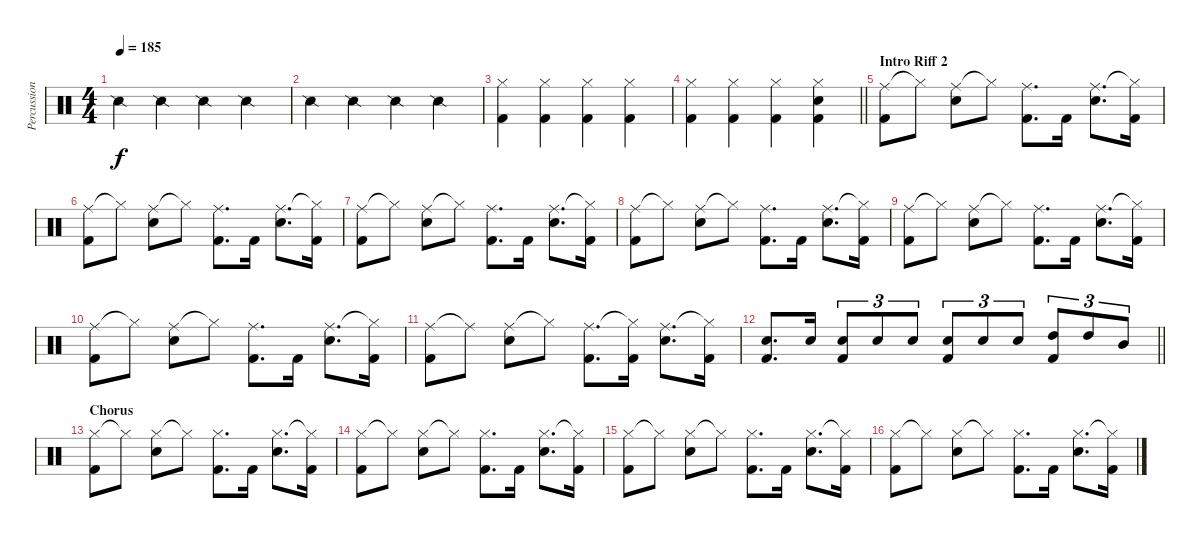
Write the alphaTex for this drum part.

\track ("Percussion" "Percussion") {instrument percussion}
\staff {score}
\articulation defaults
\ts (4 4)
\tempo 185
\clef neutral
\ks c "Snare (side stick) 2".4{dy f} "Snare (side stick) 2".4 "Snare (side stick) 2".4 "Snare (side stick) 2".4
|
"Snare (side stick) 2".4 "Snare (side stick) 2".4 "Snare (side stick) 2".4 "Snare (side stick) 2".4 |
("Hi-Hat (closed)" "Kick (hit) 2").4 ("Hi-Hat (closed)" "Kick (hit) 2").4 ("Hi-Hat (closed)" "Kick (hit) 2").4 ("Hi-Hat (closed)" "Kick (hit) 2").4 |
\barLineRight lightlight
("Hi-Hat (closed)" "Kick (hit) 2").4 ("Hi-Hat (closed)" "Kick (hit) 2").4 ("Hi-Hat (closed)" "Kick (hit) 2").4 ("Hi-Hat (closed)" "Snare (hit) 2" "Kick (hit) 2").4 |
\section ("" "Intro Riff 2")
("Ride (middle)" "Kick (hit) 2").8 "Hi-Hat (closed)"{t}.8 ("Ride (middle)" "Snare (hit) 2").8 "Hi-Hat (closed)"{t}.8 ("Ride (middle)" "Kick (hit) 2").8{d} "Kick (hit) 2".16 ("Ride (middle)" "Snare (hit) 2").8{d} ("Hi-Hat (closed)"{t} "Kick (hit) 2").16 |
("Ride (middle)" "Kick (hit) 2").8 "Hi-Hat (closed)"{t}.8 ("Ride (middle)" "Snare (hit) 2").8 "Hi-Hat (closed)"{t}.8 ("Ride (middle)" "Kick (hit) 2").8{d} "Kick (hit) 2".16 ("Ride (middle)" "Snare (hit) 2").8{d} ("Hi-Hat (closed)"{t} "Kick (hit) 2").16 |
("Ride (middle)" "Kick (hit) 2").8 "Hi-Hat (closed)"{t}.8 ("Ride (middle)" "Snare (hit) 2").8 "Hi-Hat (closed)"{t}.8 ("Ride (middle)" "Kick (hit) 2").8{d} "Kick (hit) 2".16 ("Ride (middle)" "Snare (hit) 2").8{d} ("Hi-Hat (closed)"{t} "Kick (hit) 2").16 |
("Ride (middle)" "Kick (hit) 2").8 "Hi-Hat (closed)"{t}.8 ("Ride (middle)" "Snare (hit) 2").8 "Hi-Hat (closed)"{t}.8 ("Ride (middle)" "Kick (hit) 2").8{d} "Kick (hit) 2".16 ("Ride (middle)" "Snare (hit) 2").8{d} ("Hi-Hat (closed)"{t} "Kick (hit) 2").16 |
("Ride (middle)" "Kick (hit) 2").8 "Hi-Hat (closed)"{t}.8 ("Ride (middle)" "Snare (hit) 2").8 "Hi-Hat (closed)"{t}.8 ("Ride (middle)" "Kick (hit) 2").8{d} "Kick (hit) 2".16 ("Ride (middle)" "Snare (hit) 2").8{d} ("Hi-Hat (closed)"{t} "Kick (hit) 2").16 |
("Ride (middle)" "Kick (hit) 2").8 "Hi-Hat (closed)"{t}.8 ("Ride (middle)" "Snare (hit) 2").8 "Hi-Hat (closed)"{t}.8 ("Ride (middle)" "Kick (hit) 2").8{d} "Kick (hit) 2".16 ("Ride (middle)" "Snare (hit) 2").8{d} ("Hi-Hat (closed)"{t} "Kick (hit) 2").16 |
("Ride (middle)" "Kick (hit) 2").8 "Ride (middle)"{t}.8 ("Ride (middle)" "Snare (hit) 2").8 "Hi-Hat (closed)"{t}.8 ("Ride (middle)" "Kick (hit) 2").8{d} ("Hi-Hat (closed)"{t} "Kick (hit) 2").16 ("Ride (middle)" "Snare (hit) 2").8{d} ("Hi-Hat (closed)"{t} "Kick (hit) 2").16 |
\barLineRight lightlight
("Snare (hit) 2" "Kick (hit) 2").8{d} "Snare (hit) 2".16 ("Snare (hit) 2" "Kick (hit) 2").8{tu (3 2)} "Snare (hit) 2".8{tu (3 2)} "Snare (hit) 2".8{tu (3 2)} ("Snare (hit) 2" "Kick (hit) 2").8{tu (3 2)} "Snare (hit) 2".8{tu (3 2)} "Snare (hit) 2".8{tu (3 2)} ("High Tom (hit)" "Kick (hit) 2").8{tu (3 2)} "High Tom (hit)".8{tu (3 2)} "Mid Tom (hit)".8{tu (3 2)} |
\section ("" "Chorus")
("Hi-Hat (closed)" "Kick (hit) 2").8 "Hi-Hat (closed)"{t}.8 ("Hi-Hat (closed)" "Snare (hit) 2").8 "Hi-Hat (closed)"{t}.8 ("Hi-Hat (closed)" "Kick (hit) 2").8{d} "Kick (hit) 2".16 ("Hi-Hat (closed)" "Snare (hit) 2").8{d} ("Hi-Hat (closed)"{t} "Kick (hit) 2").16 |
("Hi-Hat (closed)" "Kick (hit) 2").8 "Hi-Hat (closed)"{t}.8 ("Hi-Hat (closed)" "Snare (hit) 2").8 "Hi-Hat (closed)"{t}.8 ("Hi-Hat (closed)" "Kick (hit) 2").8{d} "Kick (hit) 2".16 ("Hi-Hat (closed)" "Snare (hit) 2").8{d} ("Hi-Hat (closed)"{t} "Kick (hit) 2").16 |
("Hi-Hat (closed)" "Kick (hit) 2").8 "Hi-Hat (closed)"{t}.8 ("Hi-Hat (closed)" "Snare (hit) 2").8 "Hi-Hat (closed)"{t}.8 ("Hi-Hat (closed)" "Kick (hit) 2").8{d} "Kick (hit) 2".16 ("Hi-Hat (closed)" "Snare (hit) 2").8{d} ("Hi-Hat (closed)"{t} "Kick (hit) 2").16 |
("Hi-Hat (closed)" "Kick (hit) 2").8 "Hi-Hat (closed)"{t}.8 ("Hi-Hat (closed)" "Snare (hit) 2").8 "Hi-Hat (closed)"{t}.8 ("Hi-Hat (closed)" "Kick (hit) 2").8{d} "Kick (hit) 2".16 ("Hi-Hat (closed)" "Snare (hit) 2").8{d} ("Hi-Hat (closed)"{t} "Kick (hit) 2").16
